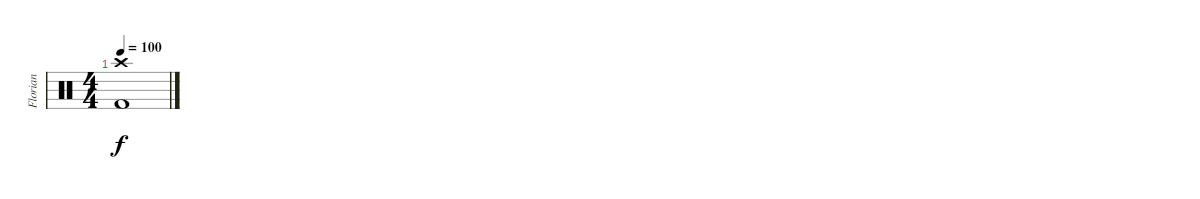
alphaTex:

\track ("Florian" "Florian") {instrument percussion}
\staff {score}
\articulation defaults
\ts (4 4)
\tempo 100
\clef neutral
\ks c
("Crash high (hit)" "Kick (hit) 2").1{dy f}
